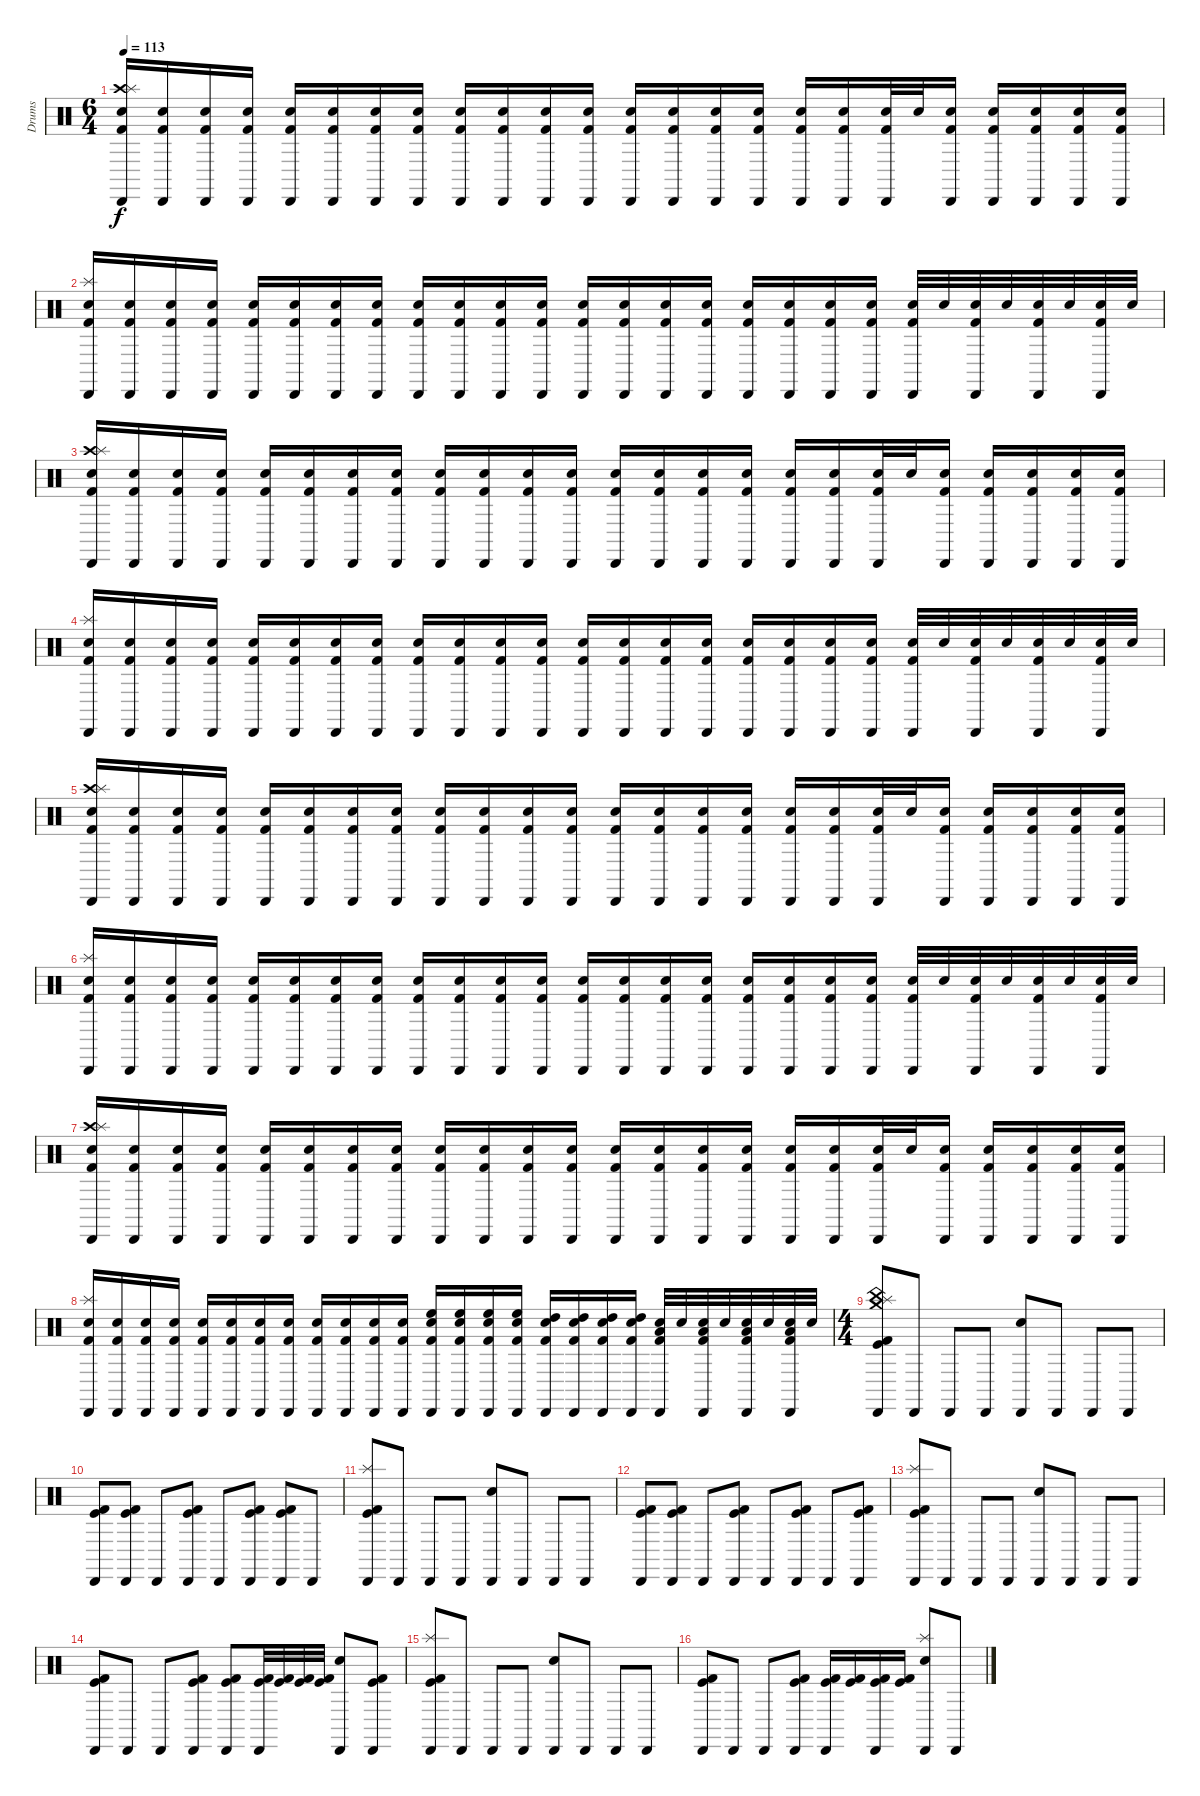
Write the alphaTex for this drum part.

\track ("Drums" "Drums") {instrument percussion}
\staff {score}
\articulation defaults
\ts (6 4)
\tempo 113
\clef neutral
\ks c
("Crash high (hit)" "Splash (hit)" "Cabasa (hit)" "Kick (hit) 2" "Electric Snare (hit)").16{dy f} ("Cabasa (hit)" "Kick (hit) 2" "Electric Snare (hit)").16 ("Cabasa (hit)" "Kick (hit) 2" "Electric Snare (hit)").16 ("Cabasa (hit)" "Kick (hit) 2" "Electric Snare (hit)").16 ("Cabasa (hit)" "Kick (hit) 2" "Electric Snare (hit)").16 ("Cabasa (hit)" "Kick (hit) 2" "Electric Snare (hit)").16 ("Cabasa (hit)" "Kick (hit) 2" "Electric Snare (hit)").16 ("Cabasa (hit)" "Kick (hit) 2" "Electric Snare (hit)").16 ("Cabasa (hit)" "Kick (hit) 2" "Electric Snare (hit)").16 ("Cabasa (hit)" "Kick (hit) 2" "Electric Snare (hit)").16 ("Cabasa (hit)" "Kick (hit) 2" "Electric Snare (hit)").16 ("Cabasa (hit)" "Kick (hit) 2" "Electric Snare (hit)").16 ("Cabasa (hit)" "Kick (hit) 2" "Electric Snare (hit)").16 ("Cabasa (hit)" "Kick (hit) 2" "Electric Snare (hit)").16 ("Cabasa (hit)" "Kick (hit) 2" "Electric Snare (hit)").16 ("Cabasa (hit)" "Kick (hit) 2" "Electric Snare (hit)").16 ("Cabasa (hit)" "Kick (hit) 2" "Electric Snare (hit)").16 ("Cabasa (hit)" "Kick (hit) 2" "Electric Snare (hit)").16 ("Cabasa (hit)" "Kick (hit) 2" "Electric Snare (hit)").32 "Electric Snare (hit)".32 ("Cabasa (hit)" "Kick (hit) 2" "Electric Snare (hit)").16 ("Cabasa (hit)" "Kick (hit) 2" "Electric Snare (hit)").16 ("Cabasa (hit)" "Kick (hit) 2" "Electric Snare (hit)").16 ("Cabasa (hit)" "Kick (hit) 2" "Electric Snare (hit)").16 ("Cabasa (hit)" "Kick (hit) 2" "Electric Snare (hit)").16 |
("Cabasa (hit)" "Splash (hit)" "Electric Snare (hit)" "Kick (hit) 2").16 ("Cabasa (hit)" "Kick (hit) 2" "Electric Snare (hit)").16 ("Cabasa (hit)" "Kick (hit) 2" "Electric Snare (hit)").16 ("Cabasa (hit)" "Kick (hit) 2" "Electric Snare (hit)").16 ("Cabasa (hit)" "Kick (hit) 2" "Electric Snare (hit)").16 ("Cabasa (hit)" "Kick (hit) 2" "Electric Snare (hit)").16 ("Cabasa (hit)" "Kick (hit) 2" "Electric Snare (hit)").16 ("Cabasa (hit)" "Kick (hit) 2" "Electric Snare (hit)").16 ("Cabasa (hit)" "Kick (hit) 2" "Electric Snare (hit)").16 ("Cabasa (hit)" "Kick (hit) 2" "Electric Snare (hit)").16 ("Cabasa (hit)" "Kick (hit) 2" "Electric Snare (hit)").16 ("Cabasa (hit)" "Kick (hit) 2" "Electric Snare (hit)").16 ("Cabasa (hit)" "Kick (hit) 2" "Electric Snare (hit)").16 ("Cabasa (hit)" "Kick (hit) 2" "Electric Snare (hit)").16 ("Cabasa (hit)" "Kick (hit) 2" "Electric Snare (hit)").16 ("Cabasa (hit)" "Kick (hit) 2" "Electric Snare (hit)").16 ("Cabasa (hit)" "Kick (hit) 2" "Electric Snare (hit)").16 ("Cabasa (hit)" "Kick (hit) 2" "Electric Snare (hit)").16 ("Cabasa (hit)" "Kick (hit) 2" "Electric Snare (hit)").16 ("Cabasa (hit)" "Kick (hit) 2" "Electric Snare (hit)").16 ("Cabasa (hit)" "Kick (hit) 2" "Electric Snare (hit)").32 "Electric Snare (hit)".32 ("Cabasa (hit)" "Kick (hit) 2" "Electric Snare (hit)").32 "Electric Snare (hit)".32 ("Cabasa (hit)" "Kick (hit) 2" "Electric Snare (hit)").32 "Electric Snare (hit)".32 ("Cabasa (hit)" "Kick (hit) 2" "Electric Snare (hit)").32 "Electric Snare (hit)".32 |
("Crash high (hit)" "Splash (hit)" "Cabasa (hit)" "Kick (hit) 2" "Electric Snare (hit)").16 ("Cabasa (hit)" "Kick (hit) 2" "Electric Snare (hit)").16 ("Cabasa (hit)" "Kick (hit) 2" "Electric Snare (hit)").16 ("Cabasa (hit)" "Kick (hit) 2" "Electric Snare (hit)").16 ("Cabasa (hit)" "Kick (hit) 2" "Electric Snare (hit)").16 ("Cabasa (hit)" "Kick (hit) 2" "Electric Snare (hit)").16 ("Cabasa (hit)" "Kick (hit) 2" "Electric Snare (hit)").16 ("Cabasa (hit)" "Kick (hit) 2" "Electric Snare (hit)").16 ("Cabasa (hit)" "Kick (hit) 2" "Electric Snare (hit)").16 ("Cabasa (hit)" "Kick (hit) 2" "Electric Snare (hit)").16 ("Cabasa (hit)" "Kick (hit) 2" "Electric Snare (hit)").16 ("Cabasa (hit)" "Kick (hit) 2" "Electric Snare (hit)").16 ("Cabasa (hit)" "Kick (hit) 2" "Electric Snare (hit)").16 ("Cabasa (hit)" "Kick (hit) 2" "Electric Snare (hit)").16 ("Cabasa (hit)" "Kick (hit) 2" "Electric Snare (hit)").16 ("Cabasa (hit)" "Kick (hit) 2" "Electric Snare (hit)").16 ("Cabasa (hit)" "Kick (hit) 2" "Electric Snare (hit)").16 ("Cabasa (hit)" "Kick (hit) 2" "Electric Snare (hit)").16 ("Cabasa (hit)" "Kick (hit) 2" "Electric Snare (hit)").32 "Electric Snare (hit)".32 ("Cabasa (hit)" "Kick (hit) 2" "Electric Snare (hit)").16 ("Cabasa (hit)" "Kick (hit) 2" "Electric Snare (hit)").16 ("Cabasa (hit)" "Kick (hit) 2" "Electric Snare (hit)").16 ("Cabasa (hit)" "Kick (hit) 2" "Electric Snare (hit)").16 ("Cabasa (hit)" "Kick (hit) 2" "Electric Snare (hit)").16 |
("Cabasa (hit)" "Splash (hit)" "Electric Snare (hit)" "Kick (hit) 2").16 ("Cabasa (hit)" "Kick (hit) 2" "Electric Snare (hit)").16 ("Cabasa (hit)" "Kick (hit) 2" "Electric Snare (hit)").16 ("Cabasa (hit)" "Kick (hit) 2" "Electric Snare (hit)").16 ("Cabasa (hit)" "Kick (hit) 2" "Electric Snare (hit)").16 ("Cabasa (hit)" "Kick (hit) 2" "Electric Snare (hit)").16 ("Cabasa (hit)" "Kick (hit) 2" "Electric Snare (hit)").16 ("Cabasa (hit)" "Kick (hit) 2" "Electric Snare (hit)").16 ("Cabasa (hit)" "Kick (hit) 2" "Electric Snare (hit)").16 ("Cabasa (hit)" "Kick (hit) 2" "Electric Snare (hit)").16 ("Cabasa (hit)" "Kick (hit) 2" "Electric Snare (hit)").16 ("Cabasa (hit)" "Kick (hit) 2" "Electric Snare (hit)").16 ("Cabasa (hit)" "Kick (hit) 2" "Electric Snare (hit)").16 ("Cabasa (hit)" "Kick (hit) 2" "Electric Snare (hit)").16 ("Cabasa (hit)" "Kick (hit) 2" "Electric Snare (hit)").16 ("Cabasa (hit)" "Kick (hit) 2" "Electric Snare (hit)").16 ("Cabasa (hit)" "Kick (hit) 2" "Electric Snare (hit)").16 ("Cabasa (hit)" "Kick (hit) 2" "Electric Snare (hit)").16 ("Cabasa (hit)" "Kick (hit) 2" "Electric Snare (hit)").16 ("Cabasa (hit)" "Kick (hit) 2" "Electric Snare (hit)").16 ("Cabasa (hit)" "Kick (hit) 2" "Electric Snare (hit)").32 "Electric Snare (hit)".32 ("Cabasa (hit)" "Kick (hit) 2" "Electric Snare (hit)").32 "Electric Snare (hit)".32 ("Cabasa (hit)" "Kick (hit) 2" "Electric Snare (hit)").32 "Electric Snare (hit)".32 ("Cabasa (hit)" "Kick (hit) 2" "Electric Snare (hit)").32 "Electric Snare (hit)".32 |
("Crash high (hit)" "Splash (hit)" "Cabasa (hit)" "Kick (hit) 2" "Electric Snare (hit)").16 ("Cabasa (hit)" "Kick (hit) 2" "Electric Snare (hit)").16 ("Cabasa (hit)" "Kick (hit) 2" "Electric Snare (hit)").16 ("Cabasa (hit)" "Kick (hit) 2" "Electric Snare (hit)").16 ("Cabasa (hit)" "Kick (hit) 2" "Electric Snare (hit)").16 ("Cabasa (hit)" "Kick (hit) 2" "Electric Snare (hit)").16 ("Cabasa (hit)" "Kick (hit) 2" "Electric Snare (hit)").16 ("Cabasa (hit)" "Kick (hit) 2" "Electric Snare (hit)").16 ("Cabasa (hit)" "Kick (hit) 2" "Electric Snare (hit)").16 ("Cabasa (hit)" "Kick (hit) 2" "Electric Snare (hit)").16 ("Cabasa (hit)" "Kick (hit) 2" "Electric Snare (hit)").16 ("Cabasa (hit)" "Kick (hit) 2" "Electric Snare (hit)").16 ("Cabasa (hit)" "Kick (hit) 2" "Electric Snare (hit)").16 ("Cabasa (hit)" "Kick (hit) 2" "Electric Snare (hit)").16 ("Cabasa (hit)" "Kick (hit) 2" "Electric Snare (hit)").16 ("Cabasa (hit)" "Kick (hit) 2" "Electric Snare (hit)").16 ("Cabasa (hit)" "Kick (hit) 2" "Electric Snare (hit)").16 ("Cabasa (hit)" "Kick (hit) 2" "Electric Snare (hit)").16 ("Cabasa (hit)" "Kick (hit) 2" "Electric Snare (hit)").32 "Electric Snare (hit)".32 ("Cabasa (hit)" "Kick (hit) 2" "Electric Snare (hit)").16 ("Cabasa (hit)" "Kick (hit) 2" "Electric Snare (hit)").16 ("Cabasa (hit)" "Kick (hit) 2" "Electric Snare (hit)").16 ("Cabasa (hit)" "Kick (hit) 2" "Electric Snare (hit)").16 ("Cabasa (hit)" "Kick (hit) 2" "Electric Snare (hit)").16 |
("Cabasa (hit)" "Splash (hit)" "Electric Snare (hit)" "Kick (hit) 2").16 ("Cabasa (hit)" "Kick (hit) 2" "Electric Snare (hit)").16 ("Cabasa (hit)" "Kick (hit) 2" "Electric Snare (hit)").16 ("Cabasa (hit)" "Kick (hit) 2" "Electric Snare (hit)").16 ("Cabasa (hit)" "Kick (hit) 2" "Electric Snare (hit)").16 ("Cabasa (hit)" "Kick (hit) 2" "Electric Snare (hit)").16 ("Cabasa (hit)" "Kick (hit) 2" "Electric Snare (hit)").16 ("Cabasa (hit)" "Kick (hit) 2" "Electric Snare (hit)").16 ("Cabasa (hit)" "Kick (hit) 2" "Electric Snare (hit)").16 ("Cabasa (hit)" "Kick (hit) 2" "Electric Snare (hit)").16 ("Cabasa (hit)" "Kick (hit) 2" "Electric Snare (hit)").16 ("Cabasa (hit)" "Kick (hit) 2" "Electric Snare (hit)").16 ("Cabasa (hit)" "Kick (hit) 2" "Electric Snare (hit)").16 ("Cabasa (hit)" "Kick (hit) 2" "Electric Snare (hit)").16 ("Cabasa (hit)" "Kick (hit) 2" "Electric Snare (hit)").16 ("Cabasa (hit)" "Kick (hit) 2" "Electric Snare (hit)").16 ("Cabasa (hit)" "Kick (hit) 2" "Electric Snare (hit)").16 ("Cabasa (hit)" "Kick (hit) 2" "Electric Snare (hit)").16 ("Cabasa (hit)" "Kick (hit) 2" "Electric Snare (hit)").16 ("Cabasa (hit)" "Kick (hit) 2" "Electric Snare (hit)").16 ("Cabasa (hit)" "Kick (hit) 2" "Electric Snare (hit)").32 "Electric Snare (hit)".32 ("Cabasa (hit)" "Kick (hit) 2" "Electric Snare (hit)").32 "Electric Snare (hit)".32 ("Cabasa (hit)" "Kick (hit) 2" "Electric Snare (hit)").32 "Electric Snare (hit)".32 ("Cabasa (hit)" "Kick (hit) 2" "Electric Snare (hit)").32 "Electric Snare (hit)".32 |
("Crash high (hit)" "Splash (hit)" "Cabasa (hit)" "Kick (hit) 2" "Electric Snare (hit)").16 ("Cabasa (hit)" "Kick (hit) 2" "Electric Snare (hit)").16 ("Cabasa (hit)" "Kick (hit) 2" "Electric Snare (hit)").16 ("Cabasa (hit)" "Kick (hit) 2" "Electric Snare (hit)").16 ("Cabasa (hit)" "Kick (hit) 2" "Electric Snare (hit)").16 ("Cabasa (hit)" "Kick (hit) 2" "Electric Snare (hit)").16 ("Cabasa (hit)" "Kick (hit) 2" "Electric Snare (hit)").16 ("Cabasa (hit)" "Kick (hit) 2" "Electric Snare (hit)").16 ("Cabasa (hit)" "Kick (hit) 2" "Electric Snare (hit)").16 ("Cabasa (hit)" "Kick (hit) 2" "Electric Snare (hit)").16 ("Cabasa (hit)" "Kick (hit) 2" "Electric Snare (hit)").16 ("Cabasa (hit)" "Kick (hit) 2" "Electric Snare (hit)").16 ("Cabasa (hit)" "Kick (hit) 2" "Electric Snare (hit)").16 ("Cabasa (hit)" "Kick (hit) 2" "Electric Snare (hit)").16 ("Cabasa (hit)" "Kick (hit) 2" "Electric Snare (hit)").16 ("Cabasa (hit)" "Kick (hit) 2" "Electric Snare (hit)").16 ("Cabasa (hit)" "Kick (hit) 2" "Electric Snare (hit)").16 ("Cabasa (hit)" "Kick (hit) 2" "Electric Snare (hit)").16 ("Cabasa (hit)" "Kick (hit) 2" "Electric Snare (hit)").32 "Electric Snare (hit)".32 ("Cabasa (hit)" "Kick (hit) 2" "Electric Snare (hit)").16 ("Cabasa (hit)" "Kick (hit) 2" "Electric Snare (hit)").16 ("Cabasa (hit)" "Kick (hit) 2" "Electric Snare (hit)").16 ("Cabasa (hit)" "Kick (hit) 2" "Electric Snare (hit)").16 ("Cabasa (hit)" "Kick (hit) 2" "Electric Snare (hit)").16 |
("Cabasa (hit)" "Splash (hit)" "Electric Snare (hit)" "Kick (hit) 2").16 ("Cabasa (hit)" "Kick (hit) 2" "Electric Snare (hit)").16 ("Cabasa (hit)" "Kick (hit) 2" "Electric Snare (hit)").16 ("Cabasa (hit)" "Kick (hit) 2" "Electric Snare (hit)").16 ("Cabasa (hit)" "Kick (hit) 2" "Electric Snare (hit)").16 ("Cabasa (hit)" "Kick (hit) 2" "Electric Snare (hit)").16 ("Cabasa (hit)" "Kick (hit) 2" "Electric Snare (hit)").16 ("Cabasa (hit)" "Kick (hit) 2" "Electric Snare (hit)").16 ("Cabasa (hit)" "Kick (hit) 2" "Electric Snare (hit)").16 ("Cabasa (hit)" "Kick (hit) 2" "Electric Snare (hit)").16 ("Cabasa (hit)" "Kick (hit) 2" "Electric Snare (hit)").16 ("Cabasa (hit)" "Kick (hit) 2" "Electric Snare (hit)").16 ("High Floor Tom (hit)" "Cabasa (hit)" "Kick (hit) 2" "Electric Snare (hit)").16 ("High Floor Tom (hit)" "Cabasa (hit)" "Kick (hit) 2" "Electric Snare (hit)").16 ("High Floor Tom (hit)" "Cabasa (hit)" "Kick (hit) 2" "Electric Snare (hit)").16 ("High Floor Tom (hit)" "Cabasa (hit)" "Kick (hit) 2" "Electric Snare (hit)").16 ("High Tom (hit)" "Cabasa (hit)" "Kick (hit) 2" "Electric Snare (hit)").16 ("High Tom (hit)" "Cabasa (hit)" "Kick (hit) 2" "Electric Snare (hit)").16 ("High Tom (hit)" "Cabasa (hit)" "Kick (hit) 2" "Electric Snare (hit)").16 ("High Tom (hit)" "Cabasa (hit)" "Kick (hit) 2" "Electric Snare (hit)").16 ("Low Tom (hit)" "Cabasa (hit)" "Kick (hit) 2" "Electric Snare (hit)").32 "Electric Snare (hit)".32 ("Low Tom (hit)" "Cabasa (hit)" "Kick (hit) 2" "Electric Snare (hit)").32 "Electric Snare (hit)".32 ("Low Tom (hit)" "Cabasa (hit)" "Kick (hit) 2" "Electric Snare (hit)").32 "Electric Snare (hit)".32 ("Low Tom (hit)" "Cabasa (hit)" "Kick (hit) 2" "Electric Snare (hit)").32 "Electric Snare (hit)".32 |
\ts (4 4)
("Crash medium (hit)" "China (hit)" "Splash (hit)" "Kick (hit)" "Kick (hit) 2" "Cabasa (hit)").8{volume 16 balance 8} "Cabasa (hit)".8 "Cabasa (hit)".8 "Cabasa (hit)".8 ("Electric Snare (hit)" "Cabasa (hit)").8 "Cabasa (hit)".8 "Cabasa (hit)".8 "Cabasa (hit)".8 |
("Kick (hit)" "Kick (hit) 2" "Cabasa (hit)").8 ("Kick (hit)" "Kick (hit) 2" "Cabasa (hit)").8 "Cabasa (hit)".8 ("Kick (hit)" "Kick (hit) 2" "Cabasa (hit)").8 "Cabasa (hit)".8 ("Kick (hit)" "Kick (hit) 2" "Cabasa (hit)").8 ("Kick (hit)" "Kick (hit) 2" "Cabasa (hit)").8 "Cabasa (hit)".8 |
("Kick (hit)" "Kick (hit) 2" "Splash (hit)" "Cabasa (hit)").8 "Cabasa (hit)".8 "Cabasa (hit)".8 "Cabasa (hit)".8 ("Electric Snare (hit)" "Cabasa (hit)").8 "Cabasa (hit)".8 "Cabasa (hit)".8 "Cabasa (hit)".8 |
("Kick (hit)" "Kick (hit) 2" "Cabasa (hit)").8 ("Kick (hit)" "Kick (hit) 2" "Cabasa (hit)").8 "Cabasa (hit)".8 ("Kick (hit)" "Kick (hit) 2" "Cabasa (hit)").8 "Cabasa (hit)".8 ("Kick (hit)" "Kick (hit) 2" "Cabasa (hit)").8 "Cabasa (hit)".8 ("Kick (hit)" "Kick (hit) 2" "Cabasa (hit)").8 |
("Kick (hit)" "Kick (hit) 2" "Cabasa (hit)" "Splash (hit)").8 "Cabasa (hit)".8 "Cabasa (hit)".8 "Cabasa (hit)".8 ("Electric Snare (hit)" "Cabasa (hit)").8 "Cabasa (hit)".8 "Cabasa (hit)".8 "Cabasa (hit)".8 |
("Kick (hit) 2" "Kick (hit)" "Cabasa (hit)").8 "Cabasa (hit)".8 "Cabasa (hit)".8 ("Kick (hit)" "Kick (hit) 2" "Cabasa (hit)").8 ("Kick (hit)" "Kick (hit) 2" "Cabasa (hit)").8 ("Kick (hit)" "Kick (hit) 2" "Cabasa (hit)").32 ("Kick (hit)" "Kick (hit) 2").32 ("Kick (hit)" "Kick (hit) 2").32 ("Kick (hit)" "Kick (hit) 2").32 ("Electric Snare (hit)" "Cabasa (hit)").8 ("Kick (hit)" "Kick (hit) 2" "Cabasa (hit)").8 |
("Kick (hit)" "Kick (hit) 2" "Splash (hit)" "Cabasa (hit)").8 "Cabasa (hit)".8 "Cabasa (hit)".8 "Cabasa (hit)".8 ("Electric Snare (hit)" "Cabasa (hit)").8 "Cabasa (hit)".8 "Cabasa (hit)".8 "Cabasa (hit)".8 |
("Cabasa (hit)" "Kick (hit)" "Kick (hit) 2").8 "Cabasa (hit)".8 "Cabasa (hit)".8 ("Kick (hit)" "Kick (hit) 2" "Cabasa (hit)").8 ("Kick (hit)" "Kick (hit) 2" "Cabasa (hit)").16 ("Kick (hit)" "Kick (hit) 2").16 ("Kick (hit)" "Kick (hit) 2" "Cabasa (hit)").16 ("Kick (hit)" "Kick (hit) 2").16 ("Splash (hit)" "Electric Snare (hit)" "Cabasa (hit)").8 "Cabasa (hit)".8
